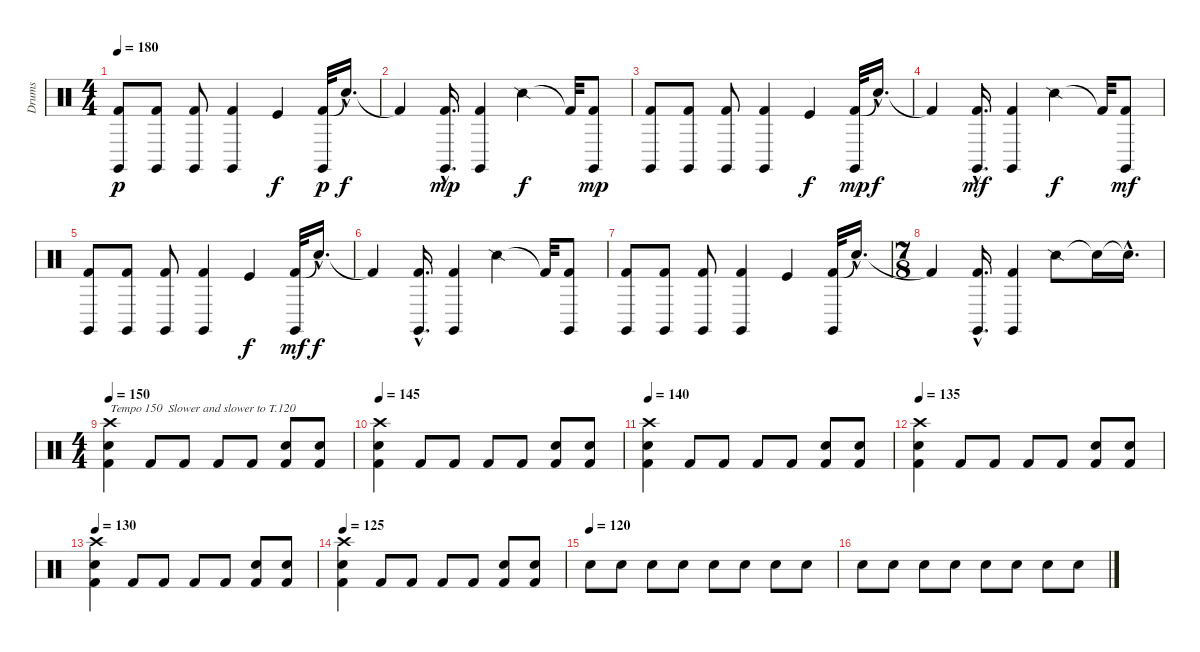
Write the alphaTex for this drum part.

\track ("Drums" "Drums") {instrument percussion}
\staff {score}
\articulation defaults
\ts (4 4)
\tempo 180
\clef neutral
\ks c
("Kick (hit) 2" "Claves (hit)").8{dy p} ("Kick (hit) 2" "Claves (hit)").8 ("Kick (hit) 2" "Claves (hit)").8 ("Kick (hit) 2" "Claves (hit)").4 "Kick (hit)".4{dy f} ("Kick (hit) 2" "Claves (hit)").32{dy p} "Snare (hit)"{hac t}.16{d dy f} |
"Kick (hit) 2"{t}.4 ("Kick (hit) 2"{hac} "Claves (hit)"{hac}).16{d dy mp} ("Kick (hit) 2" "Claves (hit)").4 "Snare (side stick) 2".4{dy f} "Kick (hit) 2"{t}.32 ("Kick (hit) 2" "Claves (hit)").8{dy mp} |
("Kick (hit) 2" "Claves (hit)").8 ("Kick (hit) 2" "Claves (hit)").8 ("Kick (hit) 2" "Claves (hit)").8 ("Kick (hit) 2" "Claves (hit)").4 "Kick (hit)".4{dy f} ("Kick (hit) 2" "Claves (hit)").32{dy mp} "Snare (hit)"{hac t}.16{d dy f} |
"Kick (hit) 2"{t}.4 ("Kick (hit) 2"{hac} "Claves (hit)"{hac}).16{d dy mf} ("Kick (hit) 2" "Claves (hit)").4 "Snare (side stick) 2".4{dy f} "Kick (hit) 2"{t}.32 ("Kick (hit) 2" "Claves (hit)").8{dy mf} |
("Kick (hit) 2" "Claves (hit)").8 ("Kick (hit) 2" "Claves (hit)").8 ("Kick (hit) 2" "Claves (hit)").8 ("Kick (hit) 2" "Claves (hit)").4 "Kick (hit)".4{dy f} ("Kick (hit) 2" "Claves (hit)").32{dy mf} "Snare (hit)"{hac t}.16{d dy f} |
"Kick (hit) 2"{t}.4 ("Kick (hit) 2"{hac} "Claves (hit)"{hac}).16{d} ("Kick (hit) 2" "Claves (hit)").4 "Snare (side stick) 2".4 "Kick (hit) 2"{t}.32 ("Kick (hit) 2" "Claves (hit)").8 |
("Kick (hit) 2" "Claves (hit)").8 ("Kick (hit) 2" "Claves (hit)").8 ("Kick (hit) 2" "Claves (hit)").8 ("Kick (hit) 2" "Claves (hit)").4 "Kick (hit)".4 ("Kick (hit) 2" "Claves (hit)").32 "Snare (hit)"{hac t}.16{d} |
\ts (7 8)
"Kick (hit) 2"{t}.4 ("Kick (hit) 2"{hac} "Claves (hit)"{hac}).16{d} ("Kick (hit) 2" "Claves (hit)").4 "Snare (side stick) 2".8 "Snare (hit)"{t}.16 "Snare (hit)"{hac t}.16{d} |
\ts (4 4)
\tempo 150
("Crash high (hit)" "Snare (hit) 2" "Kick (hit) 2").4{txt "Tempo 150  Slower and slower to T.120"} "Kick (hit) 2".8 "Kick (hit) 2".8 "Kick (hit) 2".8 "Kick (hit) 2".8 ("Kick (hit) 2" "Snare (hit) 2").8 ("Kick (hit) 2" "Snare (hit) 2").8 |
\tempo 145
("Crash high (hit)" "Snare (hit) 2" "Kick (hit) 2").4 "Kick (hit) 2".8 "Kick (hit) 2".8 "Kick (hit) 2".8 "Kick (hit) 2".8 ("Kick (hit) 2" "Snare (hit) 2").8 ("Kick (hit) 2" "Snare (hit) 2").8 |
\tempo 140
("Crash high (hit)" "Snare (hit) 2" "Kick (hit) 2").4 "Kick (hit) 2".8 "Kick (hit) 2".8 "Kick (hit) 2".8 "Kick (hit) 2".8 ("Kick (hit) 2" "Snare (hit) 2").8 ("Kick (hit) 2" "Snare (hit) 2").8 |
\tempo 135
("Crash high (hit)" "Snare (hit) 2" "Kick (hit) 2").4 "Kick (hit) 2".8 "Kick (hit) 2".8 "Kick (hit) 2".8 "Kick (hit) 2".8 ("Kick (hit) 2" "Snare (hit) 2").8 ("Kick (hit) 2" "Snare (hit) 2").8 |
\tempo 130
("Crash high (hit)" "Snare (hit) 2" "Kick (hit) 2").4 "Kick (hit) 2".8 "Kick (hit) 2".8 "Kick (hit) 2".8 "Kick (hit) 2".8 ("Kick (hit) 2" "Snare (hit) 2").8 ("Kick (hit) 2" "Snare (hit) 2").8 |
\tempo 125
("Crash high (hit)" "Snare (hit) 2" "Kick (hit) 2").4 "Kick (hit) 2".8 "Kick (hit) 2".8 "Kick (hit) 2".8 "Kick (hit) 2".8 ("Kick (hit) 2" "Snare (hit) 2").8 ("Kick (hit) 2" "Snare (hit) 2").8 |
\tempo (120)
"Snare (hit) 2".8 "Snare (hit) 2".8 "Snare (hit) 2".8 "Snare (hit) 2".8 "Snare (hit) 2".8 "Snare (hit) 2".8 "Snare (hit) 2".8 "Snare (hit) 2".8 |
"Snare (hit) 2".8 "Snare (hit) 2".8 "Snare (hit) 2".8 "Snare (hit) 2".8 "Snare (hit) 2".8 "Snare (hit) 2".8 "Snare (hit) 2".8 "Snare (hit) 2".8
